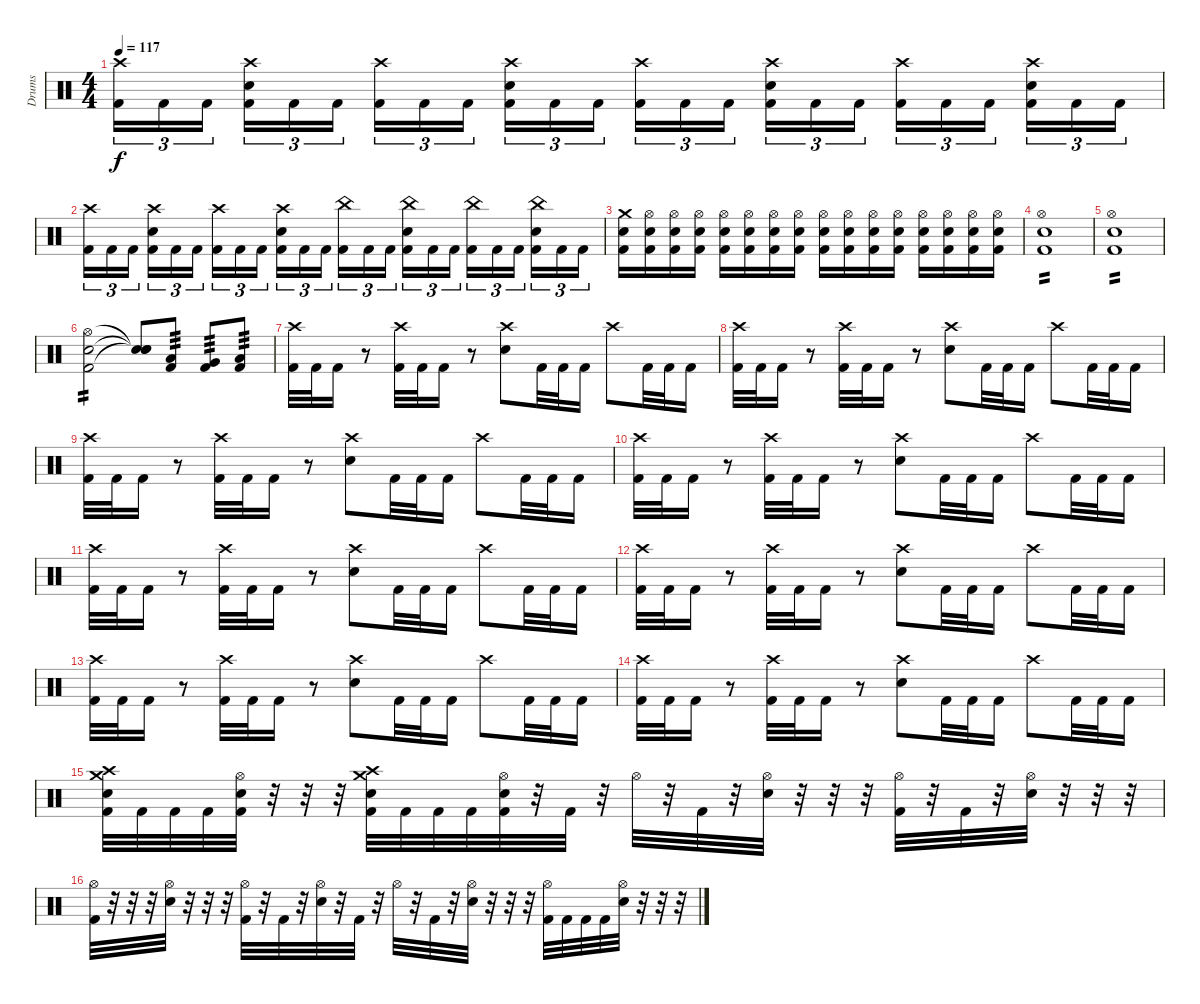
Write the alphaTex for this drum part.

\track ("Drums" "Drums") {instrument percussion}
\staff {score}
\articulation defaults
\ts (4 4)
\tempo 117
\clef neutral
\ks c
("Crash high (hit)" "Kick (hit) 2").16{tu (3 2) dy f} "Kick (hit) 2".16{tu (3 2)} "Kick (hit) 2".16{tu (3 2) beam splitsecondary} ("Crash high (hit)" "Electric Snare (hit)" "Kick (hit) 2").16{tu (3 2)} "Kick (hit) 2".16{tu (3 2)} "Kick (hit) 2".16{tu (3 2)} ("Crash high (hit)" "Kick (hit) 2").16{tu (3 2)} "Kick (hit) 2".16{tu (3 2)} "Kick (hit) 2".16{tu (3 2) beam splitsecondary} ("Crash high (hit)" "Electric Snare (hit)" "Kick (hit) 2").16{tu (3 2)} "Kick (hit) 2".16{tu (3 2)} "Kick (hit) 2".16{tu (3 2)} ("Crash high (hit)" "Kick (hit) 2").16{tu (3 2)} "Kick (hit) 2".16{tu (3 2)} "Kick (hit) 2".16{tu (3 2) beam splitsecondary} ("Crash high (hit)" "Electric Snare (hit)" "Kick (hit) 2").16{tu (3 2)} "Kick (hit) 2".16{tu (3 2)} "Kick (hit) 2".16{tu (3 2)} ("Crash high (hit)" "Kick (hit) 2").16{tu (3 2)} "Kick (hit) 2".16{tu (3 2)} "Kick (hit) 2".16{tu (3 2) beam splitsecondary} ("Crash high (hit)" "Electric Snare (hit)" "Kick (hit) 2").16{tu (3 2)} "Kick (hit) 2".16{tu (3 2)} "Kick (hit) 2".16{tu (3 2)} |
("Crash high (hit)" "Kick (hit) 2").16{tu (3 2)} "Kick (hit) 2".16{tu (3 2)} "Kick (hit) 2".16{tu (3 2) beam splitsecondary} ("Crash high (hit)" "Electric Snare (hit)" "Kick (hit) 2").16{tu (3 2)} "Kick (hit) 2".16{tu (3 2)} "Kick (hit) 2".16{tu (3 2)} ("Crash high (hit)" "Kick (hit) 2").16{tu (3 2)} "Kick (hit) 2".16{tu (3 2)} "Kick (hit) 2".16{tu (3 2) beam splitsecondary} ("Crash high (hit)" "Electric Snare (hit)" "Kick (hit) 2").16{tu (3 2)} "Kick (hit) 2".16{tu (3 2)} "Kick (hit) 2".16{tu (3 2)} ("China (hit)" "Kick (hit) 2").16{tu (3 2)} "Kick (hit) 2".16{tu (3 2)} "Kick (hit) 2".16{tu (3 2) beam splitsecondary} ("China (hit)" "Electric Snare (hit)" "Kick (hit) 2").16{tu (3 2)} "Kick (hit) 2".16{tu (3 2)} "Kick (hit) 2".16{tu (3 2)} ("China (hit)" "Kick (hit) 2").16{tu (3 2)} "Kick (hit) 2".16{tu (3 2)} "Kick (hit) 2".16{tu (3 2) beam splitsecondary} ("China (hit)" "Electric Snare (hit)" "Kick (hit) 2").16{tu (3 2)} "Kick (hit) 2".16{tu (3 2)} "Kick (hit) 2".16{tu (3 2)} |
("Crash medium (hit)" "Electric Snare (hit)" "Kick (hit) 2").16 ("Hi-Hat (open)" "Electric Snare (hit)" "Kick (hit) 2").16 ("Hi-Hat (open)" "Electric Snare (hit)" "Kick (hit) 2").16 ("Hi-Hat (open)" "Electric Snare (hit)" "Kick (hit) 2").16 ("Hi-Hat (open)" "Electric Snare (hit)" "Kick (hit) 2").16 ("Hi-Hat (open)" "Electric Snare (hit)" "Kick (hit) 2").16 ("Hi-Hat (open)" "Electric Snare (hit)" "Kick (hit) 2").16 ("Hi-Hat (open)" "Electric Snare (hit)" "Kick (hit) 2").16 ("Hi-Hat (open)" "Electric Snare (hit)" "Kick (hit) 2").16 ("Hi-Hat (open)" "Electric Snare (hit)" "Kick (hit) 2").16 ("Hi-Hat (open)" "Electric Snare (hit)" "Kick (hit) 2").16 ("Hi-Hat (open)" "Electric Snare (hit)" "Kick (hit) 2").16 ("Hi-Hat (open)" "Electric Snare (hit)" "Kick (hit) 2").16 ("Hi-Hat (open)" "Electric Snare (hit)" "Kick (hit) 2").16 ("Hi-Hat (open)" "Electric Snare (hit)" "Kick (hit) 2").16 ("Hi-Hat (open)" "Electric Snare (hit)" "Kick (hit) 2").16 |
("Hi-Hat (open)" "Electric Snare (hit)" "Kick (hit) 2").1{tp 2} |
("Hi-Hat (open)" "Electric Snare (hit)" "Kick (hit) 2").1{tp 2} |
("Hi-Hat (open)" "Electric Snare (hit)" "Kick (hit) 2").2{tp 2} ("Snare (hit)"{t} "Snare (hit)"{t} "Snare (hit)"{t}).8 ("Low Tom (hit)" "Kick (hit) 2").8{tp 3} ("Very Low Tom (hit)" "Kick (hit) 2").8{tp 3} ("Low Floor Tom (hit)" "Kick (hit) 2").8{tp 3} |
("Crash high (hit)" "Kick (hit) 2").32 "Kick (hit) 2".32 "Kick (hit) 2".16 r.8 ("Crash high (hit)" "Kick (hit) 2").32 "Kick (hit) 2".32 "Kick (hit) 2".16 r.8 ("Crash high (hit)" "Electric Snare (hit)").8 "Kick (hit) 2".32 "Kick (hit) 2".32 "Kick (hit) 2".16 "Crash high (hit)".8 "Kick (hit) 2".32 "Kick (hit) 2".32 "Kick (hit) 2".16 |
("Crash high (hit)" "Kick (hit) 2").32 "Kick (hit) 2".32 "Kick (hit) 2".16 r.8 ("Crash high (hit)" "Kick (hit) 2").32 "Kick (hit) 2".32 "Kick (hit) 2".16 r.8 ("Crash high (hit)" "Electric Snare (hit)").8 "Kick (hit) 2".32 "Kick (hit) 2".32 "Kick (hit) 2".16 "Crash high (hit)".8 "Kick (hit) 2".32 "Kick (hit) 2".32 "Kick (hit) 2".16 |
("Crash high (hit)" "Kick (hit) 2").32 "Kick (hit) 2".32 "Kick (hit) 2".16 r.8 ("Crash high (hit)" "Kick (hit) 2").32 "Kick (hit) 2".32 "Kick (hit) 2".16 r.8 ("Crash high (hit)" "Electric Snare (hit)").8 "Kick (hit) 2".32 "Kick (hit) 2".32 "Kick (hit) 2".16 "Crash high (hit)".8 "Kick (hit) 2".32 "Kick (hit) 2".32 "Kick (hit) 2".16 |
("Crash high (hit)" "Kick (hit) 2").32 "Kick (hit) 2".32 "Kick (hit) 2".16 r.8 ("Crash high (hit)" "Kick (hit) 2").32 "Kick (hit) 2".32 "Kick (hit) 2".16 r.8 ("Crash high (hit)" "Electric Snare (hit)").8 "Kick (hit) 2".32 "Kick (hit) 2".32 "Kick (hit) 2".16 "Crash high (hit)".8 "Kick (hit) 2".32 "Kick (hit) 2".32 "Kick (hit) 2".16 |
("Crash high (hit)" "Kick (hit) 2").32 "Kick (hit) 2".32 "Kick (hit) 2".16 r.8 ("Crash high (hit)" "Kick (hit) 2").32 "Kick (hit) 2".32 "Kick (hit) 2".16 r.8 ("Crash high (hit)" "Electric Snare (hit)").8 "Kick (hit) 2".32 "Kick (hit) 2".32 "Kick (hit) 2".16 "Crash high (hit)".8 "Kick (hit) 2".32 "Kick (hit) 2".32 "Kick (hit) 2".16 |
("Crash high (hit)" "Kick (hit) 2").32 "Kick (hit) 2".32 "Kick (hit) 2".16 r.8 ("Crash high (hit)" "Kick (hit) 2").32 "Kick (hit) 2".32 "Kick (hit) 2".16 r.8 ("Crash high (hit)" "Electric Snare (hit)").8 "Kick (hit) 2".32 "Kick (hit) 2".32 "Kick (hit) 2".16 "Crash high (hit)".8 "Kick (hit) 2".32 "Kick (hit) 2".32 "Kick (hit) 2".16 |
("Crash high (hit)" "Kick (hit) 2").32 "Kick (hit) 2".32 "Kick (hit) 2".16 r.8 ("Crash high (hit)" "Kick (hit) 2").32 "Kick (hit) 2".32 "Kick (hit) 2".16 r.8 ("Crash high (hit)" "Electric Snare (hit)").8 "Kick (hit) 2".32 "Kick (hit) 2".32 "Kick (hit) 2".16 "Crash high (hit)".8 "Kick (hit) 2".32 "Kick (hit) 2".32 "Kick (hit) 2".16 |
("Crash high (hit)" "Kick (hit) 2").32 "Kick (hit) 2".32 "Kick (hit) 2".16 r.8 ("Crash high (hit)" "Kick (hit) 2").32 "Kick (hit) 2".32 "Kick (hit) 2".16 r.8 ("Crash high (hit)" "Electric Snare (hit)").8 "Kick (hit) 2".32 "Kick (hit) 2".32 "Kick (hit) 2".16 "Crash high (hit)".8 "Kick (hit) 2".32 "Kick (hit) 2".32 "Kick (hit) 2".16 |
("Crash medium (hit)" "Crash high (hit)" "Electric Snare (hit)" "Kick (hit) 2").32 "Kick (hit) 2".32 "Kick (hit) 2".32 "Kick (hit) 2".32 ("Hi-Hat (open)" "Electric Snare (hit)" "Kick (hit) 2").32 r.32 r.32 r.32 ("Crash medium (hit)" "Crash high (hit)" "Electric Snare (hit)" "Kick (hit) 2").32 "Kick (hit) 2".32 "Kick (hit) 2".32 "Kick (hit) 2".32 ("Hi-Hat (open)" "Electric Snare (hit)" "Kick (hit) 2").32 r.32 "Kick (hit) 2".32 r.32 "Hi-Hat (open)".32 r.32 "Kick (hit) 2".32 r.32 ("Hi-Hat (open)" "Electric Snare (hit)").32 r.32 r.32 r.32 ("Hi-Hat (open)" "Kick (hit) 2").32 r.32 "Kick (hit) 2".32 r.32 ("Hi-Hat (open)" "Electric Snare (hit)").32 r.32 r.32 r.32 |
("Hi-Hat (open)" "Kick (hit) 2").32 r.32 r.32 r.32 ("Hi-Hat (open)" "Electric Snare (hit)").32 r.32 r.32 r.32 ("Hi-Hat (open)" "Kick (hit) 2").32 r.32 "Kick (hit) 2".32 r.32 ("Hi-Hat (open)" "Electric Snare (hit)").32 r.32 "Kick (hit) 2".32 r.32 "Hi-Hat (open)".32 r.32 "Kick (hit) 2".32 r.32 ("Hi-Hat (open)" "Electric Snare (hit)").32 r.32 r.32 r.32 ("Hi-Hat (open)" "Kick (hit) 2").32 "Kick (hit) 2".32 "Kick (hit) 2".32 "Kick (hit) 2".32 ("Hi-Hat (open)" "Electric Snare (hit)").32 r.32 r.32 r.32
